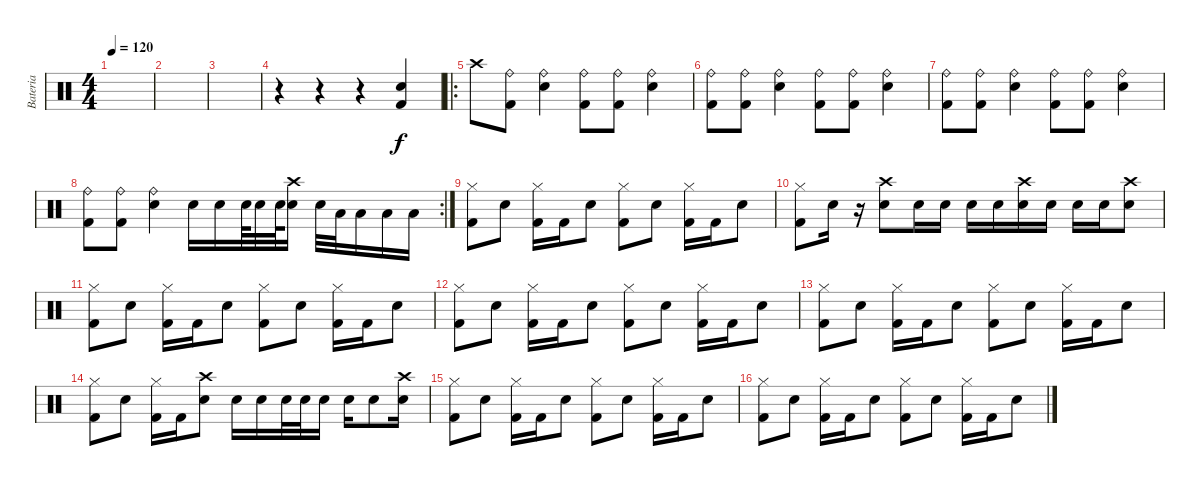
\track ("Bateria" "Bateria") {instrument percussion}
\staff {score}
\articulation defaults
\ts (4 4)
\tempo 120
\clef neutral
\ks c
|
|
|
r.4 r.4 r.4 ("Electric Snare (hit)" "Kick (hit) 2").4 |
\ro "Crash high (hit)".8
("Kick (hit) 2" "Ride (bell)").8 ("Electric Snare (hit)" "Ride (bell)").4 ("Kick (hit) 2" "Ride (bell)").8 ("Kick (hit) 2" "Ride (bell)").8 ("Electric Snare (hit)" "Ride (bell)").4 |
("Kick (hit) 2" "Ride (bell)").8 ("Kick (hit) 2" "Ride (bell)").8 ("Electric Snare (hit)" "Ride (bell)").4 ("Kick (hit) 2" "Ride (bell)").8 ("Kick (hit) 2" "Ride (bell)").8 ("Electric Snare (hit)" "Ride (bell)").4 |
("Kick (hit) 2" "Ride (bell)").8 ("Kick (hit) 2" "Ride (bell)").8 ("Electric Snare (hit)" "Ride (bell)").4 ("Kick (hit) 2" "Ride (bell)").8 ("Kick (hit) 2" "Ride (bell)").8 ("Electric Snare (hit)" "Ride (bell)").4 |
\rc 2
("Kick (hit) 2" "Ride (bell)").8 ("Kick (hit) 2" "Ride (bell)").8 ("Electric Snare (hit)" "Ride (bell)").4 "Electric Snare (hit)".16 "Electric Snare (hit)".16 "Electric Snare (hit)".64 "Electric Snare (hit)".32 "Electric Snare (hit)".64 ("Electric Snare (hit)" "Crash high (hit)").16 "Electric Snare (hit)".32 "Low Floor Tom (hit)".32 "Low Floor Tom (hit)".16 "Low Floor Tom (hit)".16 "Low Floor Tom (hit)".16 |
("Kick (hit) 2" "Hi-Hat (closed)").8 "Electric Snare (hit)".8 ("Kick (hit) 2" "Hi-Hat (closed)").16 "Kick (hit) 2".16 "Electric Snare (hit)".8 ("Kick (hit) 2" "Hi-Hat (closed)").8 "Electric Snare (hit)".8 ("Kick (hit) 2" "Hi-Hat (closed)").16 "Kick (hit) 2".16 "Electric Snare (hit)".8 |
("Kick (hit) 2" "Hi-Hat (closed)").8 "Electric Snare (hit)".16 r.16 ("Electric Snare (hit)" "Crash high (hit)").8 "Electric Snare (hit)".16 "Electric Snare (hit)".16 "Electric Snare (hit)".16 "Electric Snare (hit)".16 ("Electric Snare (hit)" "Crash high (hit)").16 "Electric Snare (hit)".16 "Electric Snare (hit)".16 "Electric Snare (hit)".16 ("Electric Snare (hit)" "Crash high (hit)").8 |
("Kick (hit) 2" "Hi-Hat (closed)").8 "Electric Snare (hit)".8 ("Kick (hit) 2" "Hi-Hat (closed)").16 "Kick (hit) 2".16 "Electric Snare (hit)".8 ("Kick (hit) 2" "Hi-Hat (closed)").8 "Electric Snare (hit)".8 ("Kick (hit) 2" "Hi-Hat (closed)").16 "Kick (hit) 2".16 "Electric Snare (hit)".8 |
("Kick (hit) 2" "Hi-Hat (closed)").8 "Electric Snare (hit)".8 ("Kick (hit) 2" "Hi-Hat (closed)").16 "Kick (hit) 2".16 "Electric Snare (hit)".8 ("Kick (hit) 2" "Hi-Hat (closed)").8 "Electric Snare (hit)".8 ("Kick (hit) 2" "Hi-Hat (closed)").16 "Kick (hit) 2".16 "Electric Snare (hit)".8 |
("Kick (hit) 2" "Hi-Hat (closed)").8 "Electric Snare (hit)".8 ("Kick (hit) 2" "Hi-Hat (closed)").16 "Kick (hit) 2".16 "Electric Snare (hit)".8 ("Kick (hit) 2" "Hi-Hat (closed)").8 "Electric Snare (hit)".8 ("Kick (hit) 2" "Hi-Hat (closed)").16 "Kick (hit) 2".16 "Electric Snare (hit)".8 |
("Kick (hit) 2" "Hi-Hat (closed)").8 "Electric Snare (hit)".8 ("Kick (hit) 2" "Hi-Hat (closed)").16 "Kick (hit) 2".16 ("Electric Snare (hit)" "Crash high (hit)").8 "Electric Snare (hit)".16 "Electric Snare (hit)".16 "Electric Snare (hit)".32 "Electric Snare (hit)".32 "Electric Snare (hit)".16 "Electric Snare (hit)".16 "Electric Snare (hit)".8 ("Electric Snare (hit)" "Crash high (hit)").16 |
("Kick (hit) 2" "Hi-Hat (closed)").8 "Electric Snare (hit)".8 ("Kick (hit) 2" "Hi-Hat (closed)").16 "Kick (hit) 2".16 "Electric Snare (hit)".8 ("Kick (hit) 2" "Hi-Hat (closed)").8 "Electric Snare (hit)".8 ("Kick (hit) 2" "Hi-Hat (closed)").16 "Kick (hit) 2".16 "Electric Snare (hit)".8 |
("Kick (hit) 2" "Hi-Hat (closed)").8 "Electric Snare (hit)".8 ("Kick (hit) 2" "Hi-Hat (closed)").16 "Kick (hit) 2".16 "Electric Snare (hit)".8 ("Kick (hit) 2" "Hi-Hat (closed)").8 "Electric Snare (hit)".8 ("Kick (hit) 2" "Hi-Hat (closed)").16 "Kick (hit) 2".16 "Electric Snare (hit)".8
